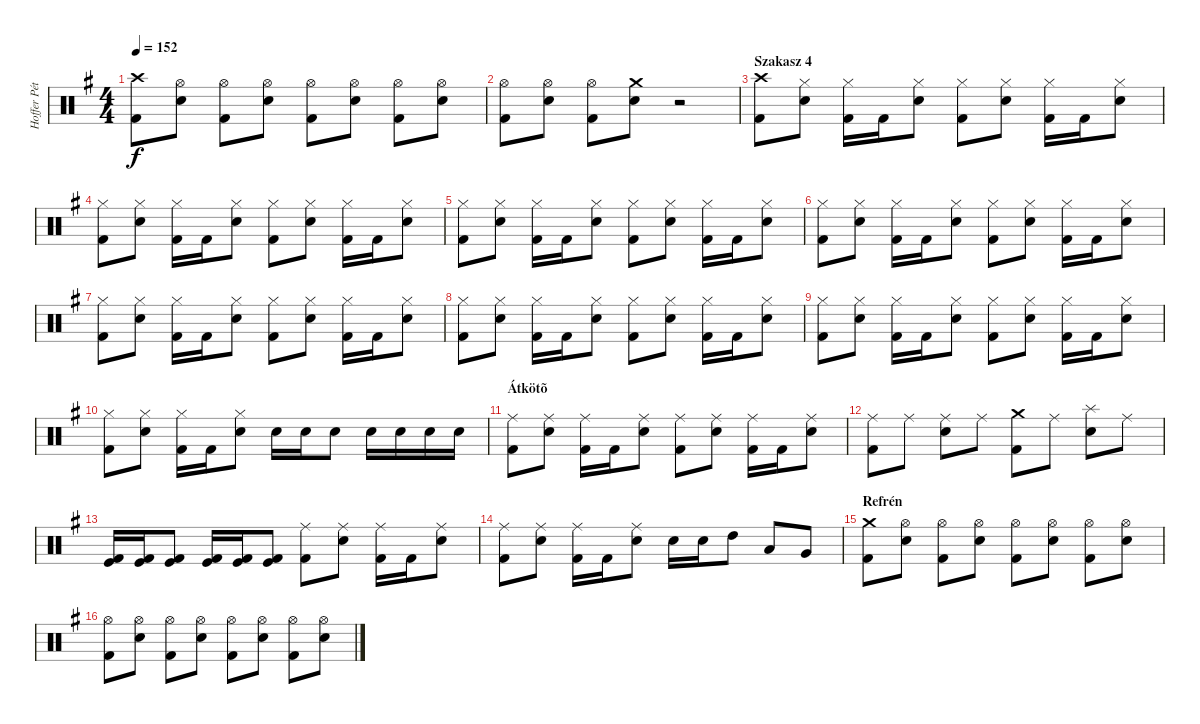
\track ("Hoffer Péter" "Hoffer Pét") {instrument percussion}
\staff {score}
\articulation defaults
\ts (4 4)
\tempo 152
\clef neutral
\ks eminor
("Crash high (hit)" "Kick (hit) 2").8{dy f} ("Hi-Hat (open)" "Snare (hit) 2").8 ("Hi-Hat (open)" "Kick (hit) 2").8 ("Hi-Hat (open)" "Snare (hit) 2").8 ("Hi-Hat (open)" "Kick (hit) 2").8 ("Hi-Hat (open)" "Snare (hit) 2").8 ("Hi-Hat (open)" "Kick (hit) 2").8 ("Hi-Hat (open)" "Snare (hit) 2").8 |
("Hi-Hat (open)" "Kick (hit) 2").8 ("Hi-Hat (open)" "Snare (hit) 2").8 ("Hi-Hat (open)" "Kick (hit) 2").8 ("Crash medium (hit)" "Snare (hit) 2").8 r.2 |
\section ("" "Szakasz 4")
("Crash high (hit)" "Kick (hit) 2").8 ("Hi-Hat (closed)" "Snare (hit) 2").8 ("Hi-Hat (closed)" "Kick (hit) 2").16 "Kick (hit) 2".16 ("Hi-Hat (closed)" "Snare (hit) 2").8 ("Hi-Hat (closed)" "Kick (hit) 2").8 ("Hi-Hat (closed)" "Snare (hit) 2").8 ("Hi-Hat (closed)" "Kick (hit) 2").16 "Kick (hit) 2".16 ("Hi-Hat (closed)" "Snare (hit) 2").8 |
("Hi-Hat (closed)" "Kick (hit) 2").8 ("Hi-Hat (closed)" "Snare (hit) 2").8 ("Hi-Hat (closed)" "Kick (hit) 2").16 "Kick (hit) 2".16 ("Hi-Hat (closed)" "Snare (hit) 2").8 ("Hi-Hat (closed)" "Kick (hit) 2").8 ("Hi-Hat (closed)" "Snare (hit) 2").8 ("Hi-Hat (closed)" "Kick (hit) 2").16 "Kick (hit) 2".16 ("Hi-Hat (closed)" "Snare (hit) 2").8 |
("Hi-Hat (closed)" "Kick (hit) 2").8 ("Hi-Hat (closed)" "Snare (hit) 2").8 ("Hi-Hat (closed)" "Kick (hit) 2").16 "Kick (hit) 2".16 ("Hi-Hat (closed)" "Snare (hit) 2").8 ("Hi-Hat (closed)" "Kick (hit) 2").8 ("Hi-Hat (closed)" "Snare (hit) 2").8 ("Hi-Hat (closed)" "Kick (hit) 2").16 "Kick (hit) 2".16 ("Hi-Hat (closed)" "Snare (hit) 2").8 |
("Hi-Hat (closed)" "Kick (hit) 2").8 ("Hi-Hat (closed)" "Snare (hit) 2").8 ("Hi-Hat (closed)" "Kick (hit) 2").16 "Kick (hit) 2".16 ("Hi-Hat (closed)" "Snare (hit) 2").8 ("Hi-Hat (closed)" "Kick (hit) 2").8 ("Hi-Hat (closed)" "Snare (hit) 2").8 ("Hi-Hat (closed)" "Kick (hit) 2").16 "Kick (hit) 2".16 ("Hi-Hat (closed)" "Snare (hit) 2").8 |
("Hi-Hat (closed)" "Kick (hit) 2").8 ("Hi-Hat (closed)" "Snare (hit) 2").8 ("Hi-Hat (closed)" "Kick (hit) 2").16 "Kick (hit) 2".16 ("Hi-Hat (closed)" "Snare (hit) 2").8 ("Hi-Hat (closed)" "Kick (hit) 2").8 ("Hi-Hat (closed)" "Snare (hit) 2").8 ("Hi-Hat (closed)" "Kick (hit) 2").16 "Kick (hit) 2".16 ("Hi-Hat (closed)" "Snare (hit) 2").8 |
("Hi-Hat (closed)" "Kick (hit) 2").8 ("Hi-Hat (closed)" "Snare (hit) 2").8 ("Hi-Hat (closed)" "Kick (hit) 2").16 "Kick (hit) 2".16 ("Hi-Hat (closed)" "Snare (hit) 2").8 ("Hi-Hat (closed)" "Kick (hit) 2").8 ("Hi-Hat (closed)" "Snare (hit) 2").8 ("Hi-Hat (closed)" "Kick (hit) 2").16 "Kick (hit) 2".16 ("Hi-Hat (closed)" "Snare (hit) 2").8 |
("Hi-Hat (closed)" "Kick (hit) 2").8 ("Hi-Hat (closed)" "Snare (hit) 2").8 ("Hi-Hat (closed)" "Kick (hit) 2").16 "Kick (hit) 2".16 ("Hi-Hat (closed)" "Snare (hit) 2").8 ("Hi-Hat (closed)" "Kick (hit) 2").8 ("Hi-Hat (closed)" "Snare (hit) 2").8 ("Hi-Hat (closed)" "Kick (hit) 2").16 "Kick (hit) 2".16 ("Hi-Hat (closed)" "Snare (hit) 2").8 |
("Hi-Hat (closed)" "Kick (hit) 2").8 ("Hi-Hat (closed)" "Snare (hit) 2").8 ("Hi-Hat (closed)" "Kick (hit) 2").16 "Kick (hit) 2".16 ("Hi-Hat (closed)" "Snare (hit) 2").8 "Snare (hit) 2".16 "Snare (hit) 2".16 "Snare (hit) 2".8 "Snare (hit) 2".16 "Snare (hit) 2".16 "Snare (hit) 2".16 "Snare (hit) 2".16 |
\section ("" "Átkötõ")
("Ride (middle)" "Kick (hit) 2").8 ("Ride (middle)" "Snare (hit) 2").8 ("Ride (middle)" "Kick (hit) 2").16 "Kick (hit) 2".16 ("Ride (middle)" "Snare (hit) 2").8 ("Ride (middle)" "Kick (hit) 2").8 ("Ride (middle)" "Snare (hit) 2").8 ("Ride (middle)" "Kick (hit) 2").16 "Kick (hit) 2".16 ("Ride (middle)" "Snare (hit) 2").8 |
("Ride (middle)" "Kick (hit) 2").8 "Ride (middle)".8 ("Ride (middle)" "Snare (hit) 2").8 "Ride (middle)".8 ("Crash medium (hit)" "Kick (hit) 2").8 "Ride (middle)".8 ("Splash (hit)" "Snare (hit) 2").8 "Ride (middle)".8 |
("Kick (hit) 2" "Kick (hit)").16 ("Kick (hit) 2" "Kick (hit)").16 ("Kick (hit) 2" "Kick (hit)").8 ("Kick (hit) 2" "Kick (hit)").16 ("Kick (hit) 2" "Kick (hit)").16 ("Kick (hit) 2" "Kick (hit)").8 ("Ride (middle)" "Kick (hit) 2").8 ("Ride (middle)" "Snare (hit) 2").8 ("Ride (middle)" "Kick (hit) 2").16 "Kick (hit) 2".16 ("Ride (middle)" "Snare (hit) 2").8 |
("Ride (middle)" "Kick (hit) 2").8 ("Ride (middle)" "Snare (hit) 2").8 ("Ride (middle)" "Kick (hit) 2").16 "Kick (hit) 2".16 ("Ride (middle)" "Snare (hit) 2").8 "Snare (hit) 2".16 "Snare (hit) 2".16 "High Tom (hit)".8 "Low Tom (hit)".8 "Very Low Tom (hit)".8 |
\section ("" "Refrén")
("Crash medium (hit)" "Kick (hit) 2").8 ("Hi-Hat (open)" "Snare (hit) 2").8 ("Hi-Hat (open)" "Kick (hit) 2").8 ("Hi-Hat (open)" "Snare (hit) 2").8 ("Hi-Hat (open)" "Kick (hit) 2").8 ("Hi-Hat (open)" "Snare (hit) 2").8 ("Hi-Hat (open)" "Kick (hit) 2").8 ("Hi-Hat (open)" "Snare (hit) 2").8 |
("Hi-Hat (open)" "Kick (hit) 2").8 ("Hi-Hat (open)" "Snare (hit) 2").8 ("Hi-Hat (open)" "Kick (hit) 2").8 ("Hi-Hat (open)" "Snare (hit) 2").8 ("Hi-Hat (open)" "Kick (hit) 2").8 ("Hi-Hat (open)" "Snare (hit) 2").8 ("Hi-Hat (open)" "Kick (hit) 2").8 ("Hi-Hat (open)" "Snare (hit) 2").8
